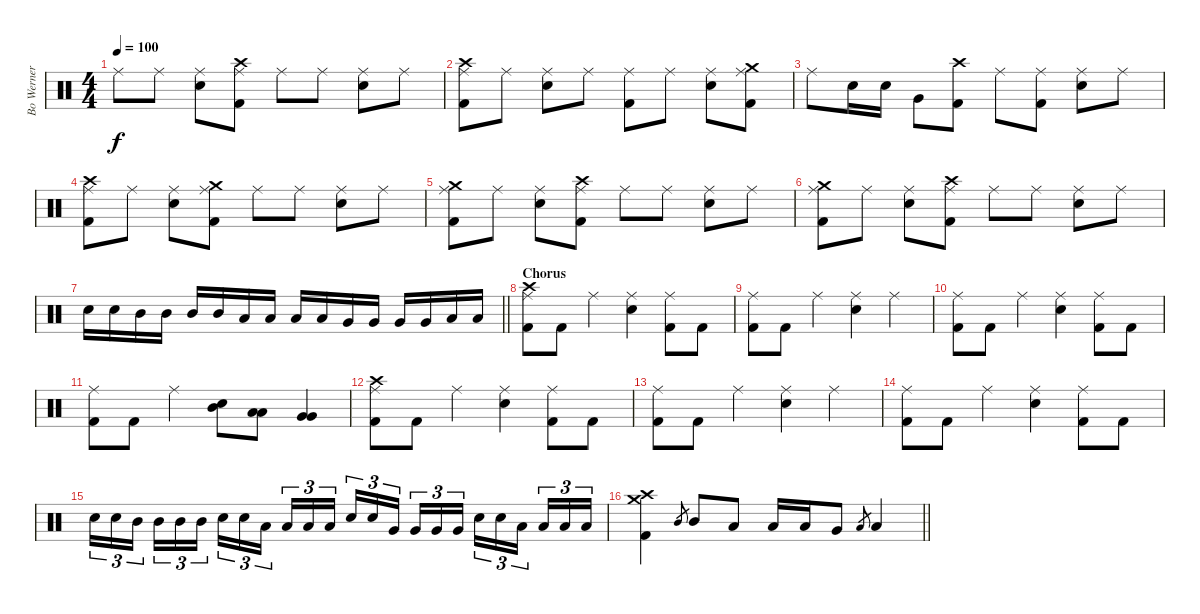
\track ("Bo Werner" "Bo Werner") {instrument percussion}
\staff {score}
\articulation defaults
\ts (4 4)
\tempo 100
\clef neutral
\ks c "Ride (middle)".8{dy f} "Ride (middle)".8
("Ride (middle)" "Snare (hit) 2").8 ("Crash high (hit)" "Ride (middle)" "Kick (hit) 2").8 "Ride (middle)".8 "Ride (middle)".8 ("Ride (middle)" "Snare (hit) 2").8 "Ride (middle)".8 |
("Crash high (hit)" "Ride (middle)" "Kick (hit) 2").8 "Ride (middle)".8 ("Ride (middle)" "Snare (hit) 2").8 "Ride (middle)".8 ("Ride (middle)" "Kick (hit) 2").8 "Ride (middle)".8 ("Ride (middle)" "Snare (hit) 2").8 ("Crash medium (hit)" "Ride (middle)" "Kick (hit) 2").8 |
"Ride (middle)".8 "Snare (hit) 2".16 "Snare (hit) 2".16 "Very Low Tom (hit)".8 ("Crash high (hit)" "Kick (hit) 2").8 "Ride (middle)".8 ("Ride (middle)" "Kick (hit) 2").8 ("Ride (middle)" "Snare (hit) 2").8 "Ride (middle)".8 |
("Crash high (hit)" "Ride (middle)" "Kick (hit) 2").8 "Ride (middle)".8 ("Ride (middle)" "Snare (hit) 2").8 ("Crash medium (hit)" "Ride (middle)" "Kick (hit) 2").8 "Ride (middle)".8 "Ride (middle)".8 ("Ride (middle)" "Snare (hit) 2").8 "Ride (middle)".8 |
("Crash medium (hit)" "Ride (middle)" "Kick (hit) 2").8 "Ride (middle)".8 ("Ride (middle)" "Snare (hit) 2").8 ("Crash high (hit)" "Ride (middle)" "Kick (hit) 2").8 "Ride (middle)".8 "Ride (middle)".8 ("Ride (middle)" "Snare (hit) 2").8 "Ride (middle)".8 |
("Crash medium (hit)" "Ride (middle)" "Kick (hit) 2").8 "Ride (middle)".8 ("Ride (middle)" "Snare (hit) 2").8 ("Crash high (hit)" "Ride (middle)" "Kick (hit) 2").8 "Ride (middle)".8 "Ride (middle)".8 ("Ride (middle)" "Snare (hit) 2").8 "Ride (middle)".8 |
\barLineRight lightlight "Snare (hit) 2".16 "Snare (hit) 2".16 "Mid Tom (hit)".16 "Mid Tom (hit)".16 "Mid Tom (hit)".16 "Mid Tom (hit)".16 "Low Tom (hit)".16 "Low Tom (hit)".16 "Low Tom (hit)".16 "Low Tom (hit)".16 "Very Low Tom (hit)".16 "Very Low Tom (hit)".16 "Very Low Tom (hit)".16 "Very Low Tom (hit)".16 "Low Floor Tom (hit)".16 "Low Floor Tom (hit)".16
|
\section ("" "Chorus")
("Crash high (hit)" "Ride (middle)" "Kick (hit) 2").8 "Kick (hit) 2".8 "Ride (middle)".4 ("Ride (middle)" "Snare (hit) 2").4 ("Ride (middle)" "Kick (hit) 2").8 "Kick (hit) 2".8 |
("Ride (middle)" "Kick (hit) 2").8 "Kick (hit) 2".8 "Ride (middle)".4 ("Ride (middle)" "Snare (hit) 2").4 "Ride (middle)".4 |
("Ride (middle)" "Kick (hit) 2").8 "Kick (hit) 2".8 "Ride (middle)".4 ("Ride (middle)" "Snare (hit) 2").4 ("Ride (middle)" "Kick (hit) 2").8 "Kick (hit) 2".8 |
("Ride (middle)" "Kick (hit) 2").8 "Kick (hit) 2".8 "Ride (middle)".4 ("Snare (hit) 2" "Mid Tom (hit)").8 ("Low Tom (hit)" "Low Tom (hit)").8 ("Very Low Tom (hit)" "Very Low Tom (hit)").4 |
("Crash high (hit)" "Ride (middle)" "Kick (hit) 2").8 "Kick (hit) 2".8 "Ride (middle)".4 ("Ride (middle)" "Snare (hit) 2").4 ("Ride (middle)" "Kick (hit) 2").8 "Kick (hit) 2".8 |
("Ride (middle)" "Kick (hit) 2").8 "Kick (hit) 2".8 "Ride (middle)".4 ("Ride (middle)" "Snare (hit) 2").4 "Ride (middle)".4 |
("Ride (middle)" "Kick (hit) 2").8 "Kick (hit) 2".8 "Ride (middle)".4 ("Ride (middle)" "Snare (hit) 2").4 ("Ride (middle)" "Kick (hit) 2").8 "Kick (hit) 2".8 |
"Snare (hit) 2".16{tu (3 2)} "Snare (hit) 2".16{tu (3 2)} "Mid Tom (hit)".16{tu (3 2) beam splitsecondary} "Mid Tom (hit)".16{tu (3 2)} "Mid Tom (hit)".16{tu (3 2)} "Mid Tom (hit)".16{tu (3 2)} "Snare (hit) 2".16{tu (3 2)} "Snare (hit) 2".16{tu (3 2)} "Low Tom (hit)".16{tu (3 2) beam splitsecondary} "Low Tom (hit)".16{tu (3 2)} "Low Tom (hit)".16{tu (3 2)} "Low Tom (hit)".16{tu (3 2)} "Snare (hit) 2".16{tu (3 2)} "Snare (hit) 2".16{tu (3 2)} "Very Low Tom (hit)".16{tu (3 2) beam splitsecondary} "Very Low Tom (hit)".16{tu (3 2)} "Very Low Tom (hit)".16{tu (3 2)} "Very Low Tom (hit)".16{tu (3 2)} "Snare (hit) 2".16{tu (3 2)} "Snare (hit) 2".16{tu (3 2)} "Low Floor Tom (hit)".16{tu (3 2) beam splitsecondary} "Low Floor Tom (hit)".16{tu (3 2)} "Low Floor Tom (hit)".16{tu (3 2)} "Low Floor Tom (hit)".16{tu (3 2)} |
\barLineRight lightlight
("Crash medium (hit)" "Crash high (hit)" "Kick (hit) 2").4 "Mid Tom (hit)".8{gr} "Mid Tom (hit)".8 "Low Tom (hit)".8 "Low Tom (hit)".16 "Low Tom (hit)".16 "Very Low Tom (hit)".8 "Low Floor Tom (hit)".8{gr} "Low Floor Tom (hit)".4
